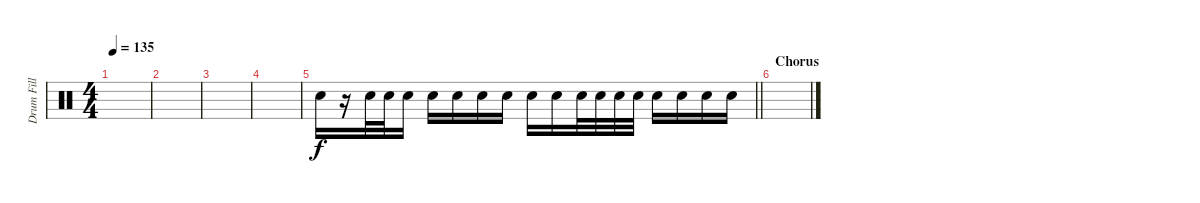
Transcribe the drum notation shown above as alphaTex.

\track ("Drum Fill" "Drum Fill") {instrument percussion}
\staff {score}
\articulation defaults
\ts (4 4)
\tempo 135
\clef neutral
\ks c
|
|
|
|
\barLineRight lightlight "Electric Snare (hit)".16
r.16 "Electric Snare (hit)".32 "Electric Snare (hit)".32 "Electric Snare (hit)".16 "Electric Snare (hit)".16 "Electric Snare (hit)".16 "Electric Snare (hit)".16 "Electric Snare (hit)".16 "Electric Snare (hit)".16 "Electric Snare (hit)".16 "Electric Snare (hit)".32 "Electric Snare (hit)".32 "Electric Snare (hit)".32 "Electric Snare (hit)".32 "Electric Snare (hit)".16 "Electric Snare (hit)".16 "Electric Snare (hit)".16 "Electric Snare (hit)".16 |
\section ("" "Chorus")
